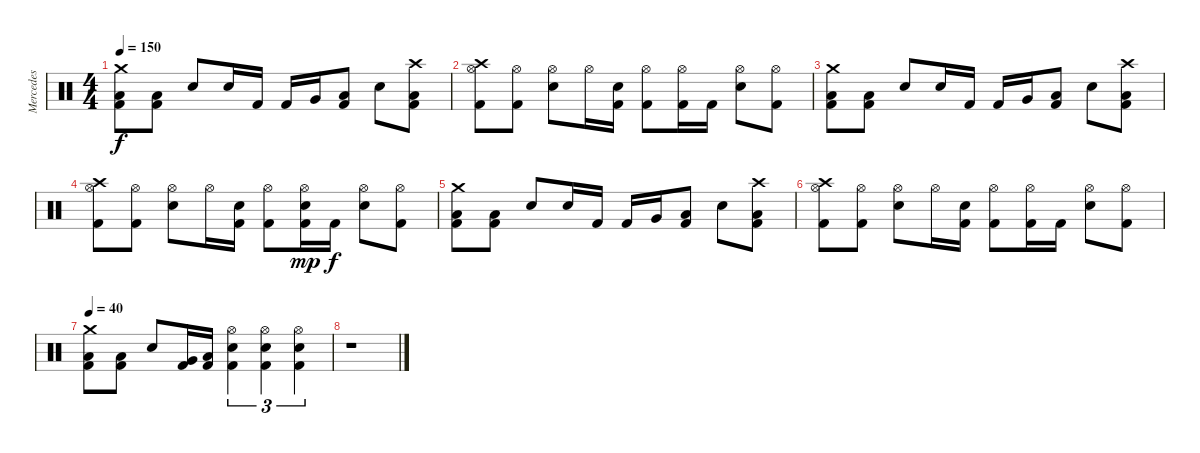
\track ("Mercedes" "Mercedes") {instrument percussion}
\staff {score}
\articulation defaults
\ts (4 4)
\tempo 150
\clef neutral
\ks c
("Crash medium (hit)" "Low Floor Tom (hit)" "Kick (hit) 2").8{dy f} ("Low Floor Tom (hit)" "Kick (hit) 2").8 "Electric Snare (hit)".8 "Electric Snare (hit)".16 "Kick (hit) 2".16 "Kick (hit) 2".16 "Very Low Tom (hit)".16 ("Low Floor Tom (hit)" "Kick (hit) 2").8 "Electric Snare (hit)".8 ("Crash high (hit)" "Low Floor Tom (hit)" "Kick (hit) 2").8 |
("Crash high (hit)" "Hi-Hat (open)" "Kick (hit) 2").8 ("Hi-Hat (open)" "Kick (hit) 2").8 ("Hi-Hat (open)" "Electric Snare (hit)").8 "Hi-Hat (open)".16 ("Electric Snare (hit)" "Kick (hit) 2").16 ("Hi-Hat (open)" "Kick (hit) 2").8 ("Hi-Hat (open)" "Kick (hit) 2").16 "Kick (hit) 2".16 ("Hi-Hat (open)" "Electric Snare (hit)").8 ("Hi-Hat (open)" "Kick (hit) 2").8 |
("Crash medium (hit)" "Low Floor Tom (hit)" "Kick (hit) 2").8 ("Low Floor Tom (hit)" "Kick (hit) 2").8 "Electric Snare (hit)".8 "Electric Snare (hit)".16 "Kick (hit) 2".16 "Kick (hit) 2".16 "Very Low Tom (hit)".16 ("Low Floor Tom (hit)" "Kick (hit) 2").8 "Electric Snare (hit)".8 ("Crash high (hit)" "Low Floor Tom (hit)" "Kick (hit) 2").8 |
("Crash high (hit)" "Hi-Hat (open)" "Kick (hit) 2").8 ("Hi-Hat (open)" "Kick (hit) 2").8 ("Hi-Hat (open)" "Electric Snare (hit)").8 "Hi-Hat (open)".16 ("Electric Snare (hit)" "Kick (hit) 2").16 ("Hi-Hat (open)" "Kick (hit) 2").8 ("Hi-Hat (open)" "Electric Snare (hit)" "Kick (hit) 2").16{dy mp} "Kick (hit) 2".16{dy f} ("Hi-Hat (open)" "Electric Snare (hit)").8 ("Hi-Hat (open)" "Kick (hit) 2").8 |
("Crash medium (hit)" "Low Floor Tom (hit)" "Kick (hit) 2").8 ("Low Floor Tom (hit)" "Kick (hit) 2").8 "Electric Snare (hit)".8 "Electric Snare (hit)".16 "Kick (hit) 2".16 "Kick (hit) 2".16 "Very Low Tom (hit)".16 ("Low Floor Tom (hit)" "Kick (hit) 2").8 "Electric Snare (hit)".8 ("Crash high (hit)" "Low Floor Tom (hit)" "Kick (hit) 2").8 |
("Crash high (hit)" "Hi-Hat (open)" "Kick (hit) 2").8 ("Hi-Hat (open)" "Kick (hit) 2").8 ("Hi-Hat (open)" "Electric Snare (hit)").8 "Hi-Hat (open)".16 ("Electric Snare (hit)" "Kick (hit) 2").16 ("Hi-Hat (open)" "Kick (hit) 2").8 ("Hi-Hat (open)" "Kick (hit) 2").16 "Kick (hit) 2".16 ("Hi-Hat (open)" "Electric Snare (hit)").8 ("Hi-Hat (open)" "Kick (hit) 2").8 |
\tempo 40
("Crash medium (hit)" "Low Floor Tom (hit)" "Kick (hit) 2").8 ("Low Floor Tom (hit)" "Kick (hit) 2").8 "Electric Snare (hit)".8 ("Very Low Tom (hit)" "Kick (hit) 2").16 ("Low Floor Tom (hit)" "Kick (hit) 2").16 ("Hi-Hat (open)" "Electric Snare (hit)" "Kick (hit) 2").4{tu (3 2)} ("Hi-Hat (open)" "Electric Snare (hit)" "Kick (hit) 2").4{tu (3 2)} ("Hi-Hat (open)" "Electric Snare (hit)" "Kick (hit) 2").4{tu (3 2)} |
r.1
